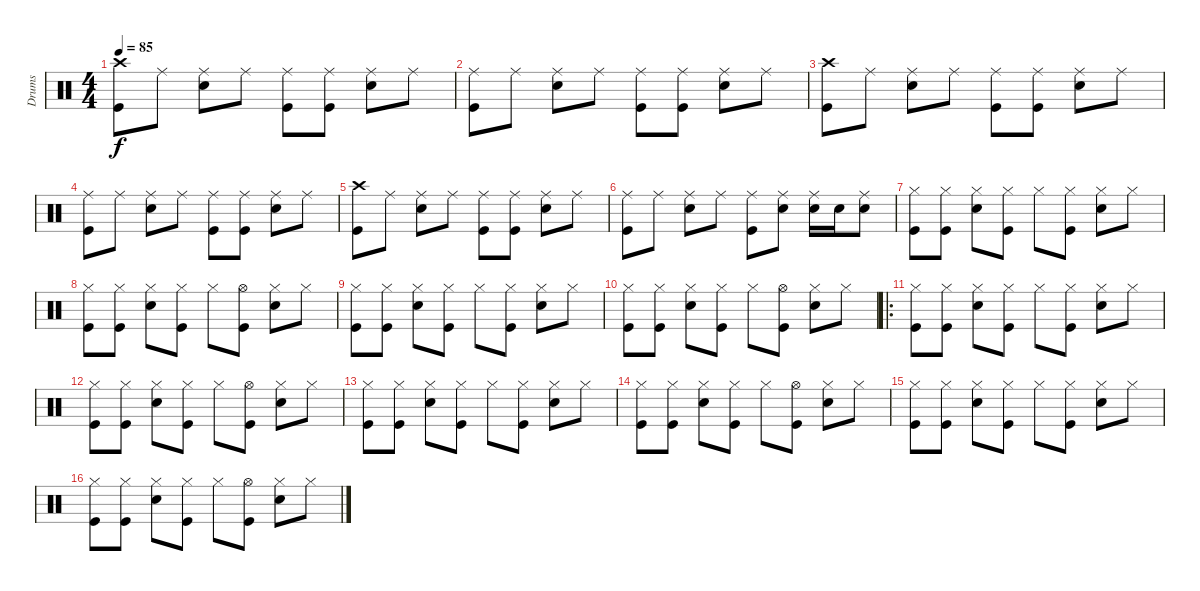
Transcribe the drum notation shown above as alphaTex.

\track ("Drums" "Drums") {instrument percussion}
\staff {score}
\articulation defaults
\ts (4 4)
\tempo 85
\clef neutral
\ks c
("Kick (hit)" "Crash high (hit)").8{dy f} "Ride (middle)".8 ("Ride (middle)" "Snare (hit) 2").8 "Ride (middle)".8 ("Kick (hit)" "Ride (middle)").8 ("Kick (hit)" "Ride (middle)").8 ("Snare (hit) 2" "Ride (middle)").8 "Ride (middle)".8 |
("Kick (hit)" "Ride (middle)").8 "Ride (middle)".8 ("Ride (middle)" "Snare (hit) 2").8 "Ride (middle)".8 ("Kick (hit)" "Ride (middle)").8 ("Kick (hit)" "Ride (middle)").8 ("Snare (hit) 2" "Ride (middle)").8 "Ride (middle)".8 |
("Kick (hit)" "Crash high (hit)").8 "Ride (middle)".8 ("Ride (middle)" "Snare (hit) 2").8 "Ride (middle)".8 ("Kick (hit)" "Ride (middle)").8 ("Kick (hit)" "Ride (middle)").8 ("Snare (hit) 2" "Ride (middle)").8 "Ride (middle)".8 |
("Kick (hit)" "Ride (middle)").8 "Ride (middle)".8 ("Ride (middle)" "Snare (hit) 2").8 "Ride (middle)".8 ("Kick (hit)" "Ride (middle)").8 ("Kick (hit)" "Ride (middle)").8 ("Snare (hit) 2" "Ride (middle)").8 "Ride (middle)".8 |
("Kick (hit)" "Crash high (hit)").8 "Ride (middle)".8 ("Ride (middle)" "Snare (hit) 2").8 "Ride (middle)".8 ("Kick (hit)" "Ride (middle)").8 ("Kick (hit)" "Ride (middle)").8 ("Snare (hit) 2" "Ride (middle)").8 "Ride (middle)".8 |
("Kick (hit)" "Ride (middle)").8 "Ride (middle)".8 ("Ride (middle)" "Snare (hit) 2").8 "Ride (middle)".8 ("Kick (hit)" "Ride (middle)").8 ("Ride (middle)" "Snare (hit) 2").8 ("Snare (hit) 2" "Ride (middle)").16 "Snare (hit) 2".16 ("Ride (middle)" "Snare (hit) 2").8 |
("Kick (hit)" "Hi-Hat (closed)").8 ("Hi-Hat (closed)" "Kick (hit)").8 ("Snare (hit) 2" "Hi-Hat (closed)").8 ("Kick (hit)" "Hi-Hat (closed)").8 "Hi-Hat (closed)".8 ("Hi-Hat (closed)" "Kick (hit)").8 ("Hi-Hat (closed)" "Snare (hit) 2").8 "Hi-Hat (closed)".8 |
("Kick (hit)" "Hi-Hat (closed)").8 ("Hi-Hat (closed)" "Kick (hit)").8 ("Snare (hit) 2" "Hi-Hat (closed)").8 ("Kick (hit)" "Hi-Hat (closed)").8 "Hi-Hat (closed)".8 ("Hi-Hat (open)" "Kick (hit)").8 ("Hi-Hat (closed)" "Snare (hit) 2").8 "Hi-Hat (closed)".8 |
("Kick (hit)" "Hi-Hat (closed)").8 ("Hi-Hat (closed)" "Kick (hit)").8 ("Snare (hit) 2" "Hi-Hat (closed)").8 ("Kick (hit)" "Hi-Hat (closed)").8 "Hi-Hat (closed)".8 ("Hi-Hat (closed)" "Kick (hit)").8 ("Hi-Hat (closed)" "Snare (hit) 2").8 "Hi-Hat (closed)".8 |
("Kick (hit)" "Hi-Hat (closed)").8 ("Hi-Hat (closed)" "Kick (hit)").8 ("Snare (hit) 2" "Hi-Hat (closed)").8 ("Kick (hit)" "Hi-Hat (closed)").8 "Hi-Hat (closed)".8 ("Hi-Hat (open)" "Kick (hit)").8 ("Hi-Hat (closed)" "Snare (hit) 2").8 "Hi-Hat (closed)".8 |
\ro
("Kick (hit)" "Hi-Hat (closed)").8 ("Hi-Hat (closed)" "Kick (hit)").8 ("Snare (hit) 2" "Hi-Hat (closed)").8 ("Kick (hit)" "Hi-Hat (closed)").8 "Hi-Hat (closed)".8 ("Hi-Hat (closed)" "Kick (hit)").8 ("Hi-Hat (closed)" "Snare (hit) 2").8 "Hi-Hat (closed)".8 |
("Kick (hit)" "Hi-Hat (closed)").8 ("Hi-Hat (closed)" "Kick (hit)").8 ("Snare (hit) 2" "Hi-Hat (closed)").8 ("Kick (hit)" "Hi-Hat (closed)").8 "Hi-Hat (closed)".8 ("Hi-Hat (open)" "Kick (hit)").8 ("Hi-Hat (closed)" "Snare (hit) 2").8 "Hi-Hat (closed)".8 |
("Kick (hit)" "Hi-Hat (closed)").8 ("Hi-Hat (closed)" "Kick (hit)").8 ("Snare (hit) 2" "Hi-Hat (closed)").8 ("Kick (hit)" "Hi-Hat (closed)").8 "Hi-Hat (closed)".8 ("Hi-Hat (closed)" "Kick (hit)").8 ("Hi-Hat (closed)" "Snare (hit) 2").8 "Hi-Hat (closed)".8 |
("Kick (hit)" "Hi-Hat (closed)").8 ("Hi-Hat (closed)" "Kick (hit)").8 ("Snare (hit) 2" "Hi-Hat (closed)").8 ("Kick (hit)" "Hi-Hat (closed)").8 "Hi-Hat (closed)".8 ("Hi-Hat (open)" "Kick (hit)").8 ("Hi-Hat (closed)" "Snare (hit) 2").8 "Hi-Hat (closed)".8 |
("Kick (hit)" "Hi-Hat (closed)").8 ("Hi-Hat (closed)" "Kick (hit)").8 ("Snare (hit) 2" "Hi-Hat (closed)").8 ("Kick (hit)" "Hi-Hat (closed)").8 "Hi-Hat (closed)".8 ("Hi-Hat (closed)" "Kick (hit)").8 ("Hi-Hat (closed)" "Snare (hit) 2").8 "Hi-Hat (closed)".8 |
("Kick (hit)" "Hi-Hat (closed)").8 ("Hi-Hat (closed)" "Kick (hit)").8 ("Snare (hit) 2" "Hi-Hat (closed)").8 ("Kick (hit)" "Hi-Hat (closed)").8 "Hi-Hat (closed)".8 ("Hi-Hat (open)" "Kick (hit)").8 ("Hi-Hat (closed)" "Snare (hit) 2").8 "Hi-Hat (closed)".8
